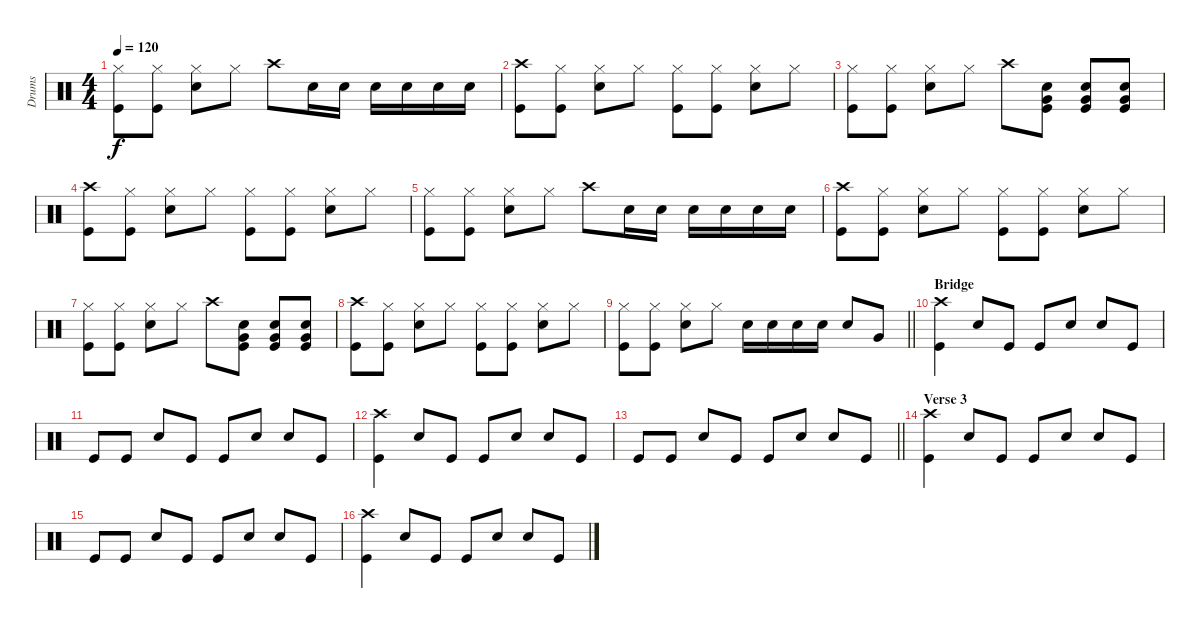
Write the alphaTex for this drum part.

\track ("Drums" "Drums") {instrument percussion}
\staff {score}
\articulation defaults
\ts (4 4)
\tempo 120
\clef neutral
\ks c
("Hi-Hat (closed)" "Kick (hit)").8{dy f} ("Hi-Hat (closed)" "Kick (hit)").8 ("Hi-Hat (closed)" "Snare (hit) 2").8 "Hi-Hat (closed)".8 "Crash high (hit)".8 "Snare (hit) 2".16 "Snare (hit) 2".16 "Snare (hit) 2".16 "Snare (hit) 2".16 "Snare (hit) 2".16 "Snare (hit) 2".16 |
("Crash high (hit)" "Kick (hit)").8 ("Hi-Hat (closed)" "Kick (hit)").8 ("Hi-Hat (closed)" "Snare (hit) 2").8 "Hi-Hat (closed)".8 ("Hi-Hat (closed)" "Kick (hit)").8 ("Hi-Hat (closed)" "Kick (hit)").8 ("Hi-Hat (closed)" "Snare (hit) 2").8 "Hi-Hat (closed)".8 |
("Hi-Hat (closed)" "Kick (hit)").8 ("Hi-Hat (closed)" "Kick (hit)").8 ("Hi-Hat (closed)" "Snare (hit) 2").8 "Hi-Hat (closed)".8 "Crash high (hit)".8 ("Snare (hit) 2" "Very Low Tom (hit)" "Kick (hit)").8 ("Snare (hit) 2" "Very Low Tom (hit)" "Kick (hit)").8 ("Snare (hit) 2" "Very Low Tom (hit)" "Kick (hit)").8 |
("Crash high (hit)" "Kick (hit)").8 ("Hi-Hat (closed)" "Kick (hit)").8 ("Hi-Hat (closed)" "Snare (hit) 2").8 "Hi-Hat (closed)".8 ("Hi-Hat (closed)" "Kick (hit)").8 ("Hi-Hat (closed)" "Kick (hit)").8 ("Hi-Hat (closed)" "Snare (hit) 2").8 "Hi-Hat (closed)".8 |
("Hi-Hat (closed)" "Kick (hit)").8 ("Hi-Hat (closed)" "Kick (hit)").8 ("Hi-Hat (closed)" "Snare (hit) 2").8 "Hi-Hat (closed)".8 "Crash high (hit)".8 "Snare (hit) 2".16 "Snare (hit) 2".16 "Snare (hit) 2".16 "Snare (hit) 2".16 "Snare (hit) 2".16 "Snare (hit) 2".16 |
("Crash high (hit)" "Kick (hit)").8 ("Hi-Hat (closed)" "Kick (hit)").8 ("Hi-Hat (closed)" "Snare (hit) 2").8 "Hi-Hat (closed)".8 ("Hi-Hat (closed)" "Kick (hit)").8 ("Hi-Hat (closed)" "Kick (hit)").8 ("Hi-Hat (closed)" "Snare (hit) 2").8 "Hi-Hat (closed)".8 |
("Hi-Hat (closed)" "Kick (hit)").8 ("Hi-Hat (closed)" "Kick (hit)").8 ("Hi-Hat (closed)" "Snare (hit) 2").8 "Hi-Hat (closed)".8 "Crash high (hit)".8 ("Snare (hit) 2" "Very Low Tom (hit)" "Kick (hit)").8 ("Snare (hit) 2" "Very Low Tom (hit)" "Kick (hit)").8 ("Snare (hit) 2" "Very Low Tom (hit)" "Kick (hit)").8 |
("Crash high (hit)" "Kick (hit)").8 ("Hi-Hat (closed)" "Kick (hit)").8 ("Hi-Hat (closed)" "Snare (hit) 2").8 "Hi-Hat (closed)".8 ("Hi-Hat (closed)" "Kick (hit)").8 ("Hi-Hat (closed)" "Kick (hit)").8 ("Hi-Hat (closed)" "Snare (hit) 2").8 "Hi-Hat (closed)".8 |
\barLineRight lightlight
("Hi-Hat (closed)" "Kick (hit)").8 ("Hi-Hat (closed)" "Kick (hit)").8 ("Hi-Hat (closed)" "Snare (hit) 2").8 "Hi-Hat (closed)".8 "Snare (hit) 2".16 "Snare (hit) 2".16 "Snare (hit) 2".16 "Snare (hit) 2".16 "Snare (hit) 2".8 "Very Low Tom (hit)".8 |
\section ("" "Bridge")
("Kick (hit)" "Crash high (hit)").4 "Snare (hit) 2".8 "Kick (hit)".8 "Kick (hit)".8 "Snare (hit) 2".8 "Snare (hit) 2".8 "Kick (hit)".8 |
"Kick (hit)".8 "Kick (hit)".8 "Snare (hit) 2".8 "Kick (hit)".8 "Kick (hit)".8 "Snare (hit) 2".8 "Snare (hit) 2".8 "Kick (hit)".8 |
("Kick (hit)" "Crash high (hit)").4 "Snare (hit) 2".8 "Kick (hit)".8 "Kick (hit)".8 "Snare (hit) 2".8 "Snare (hit) 2".8 "Kick (hit)".8 |
\barLineRight lightlight "Kick (hit)".8 "Kick (hit)".8 "Snare (hit) 2".8 "Kick (hit)".8 "Kick (hit)".8 "Snare (hit) 2".8 "Snare (hit) 2".8 "Kick (hit)".8
|
\section ("" "Verse 3")
("Kick (hit)" "Crash high (hit)").4 "Snare (hit) 2".8 "Kick (hit)".8 "Kick (hit)".8 "Snare (hit) 2".8 "Snare (hit) 2".8 "Kick (hit)".8 |
"Kick (hit)".8 "Kick (hit)".8 "Snare (hit) 2".8 "Kick (hit)".8 "Kick (hit)".8 "Snare (hit) 2".8 "Snare (hit) 2".8 "Kick (hit)".8 |
("Kick (hit)" "Crash high (hit)").4 "Snare (hit) 2".8 "Kick (hit)".8 "Kick (hit)".8 "Snare (hit) 2".8 "Snare (hit) 2".8 "Kick (hit)".8
